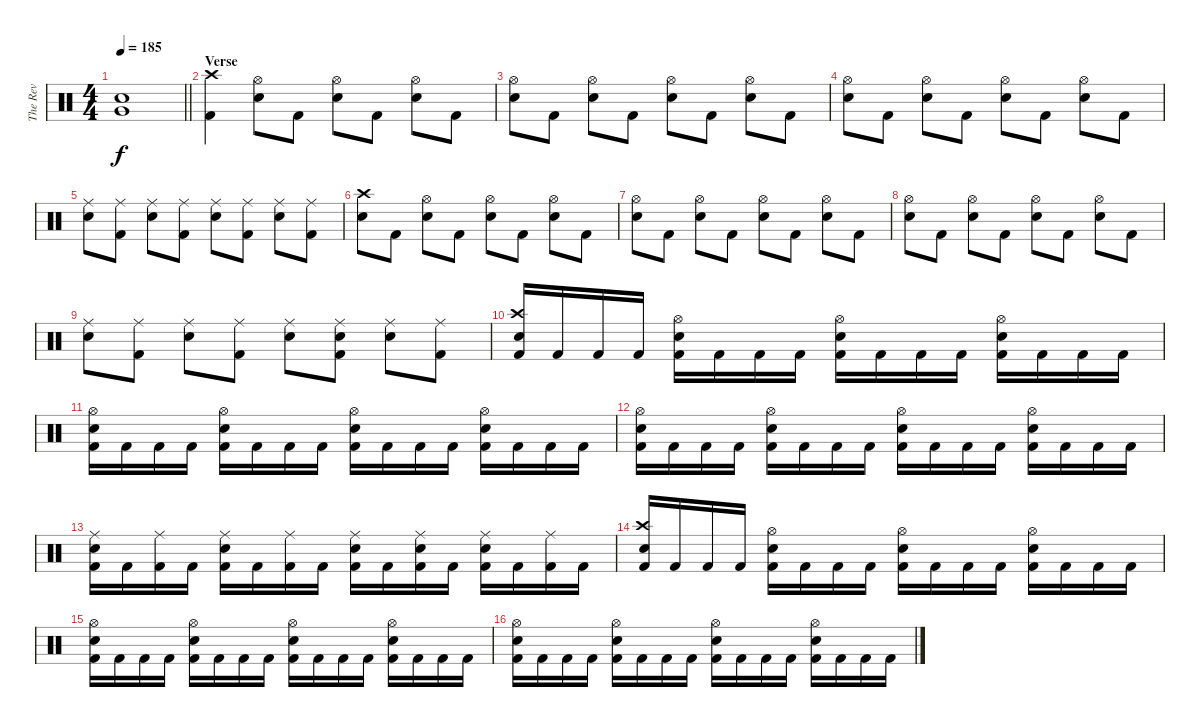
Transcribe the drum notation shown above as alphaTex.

\track ("The Rev" "The Rev") {instrument percussion}
\staff {score}
\articulation defaults
\ts (4 4)
\tempo 185
\clef neutral
\barLineRight lightlight
\ks c
("Very Low Tom (hit)" "Electric Snare (hit)").1{dy f} |
\section ("" "Verse")
("Crash high (hit)" "Kick (hit) 2").4 ("Hi-Hat (open)" "Electric Snare (hit)").8 "Kick (hit) 2".8 ("Hi-Hat (open)" "Electric Snare (hit)").8 "Kick (hit) 2".8 ("Hi-Hat (open)" "Electric Snare (hit)").8 "Kick (hit) 2".8 |
("Hi-Hat (open)" "Electric Snare (hit)").8 "Kick (hit) 2".8 ("Hi-Hat (open)" "Electric Snare (hit)").8 "Kick (hit) 2".8 ("Hi-Hat (open)" "Electric Snare (hit)").8 "Kick (hit) 2".8 ("Hi-Hat (open)" "Electric Snare (hit)").8 "Kick (hit) 2".8 |
("Hi-Hat (open)" "Electric Snare (hit)").8 "Kick (hit) 2".8 ("Hi-Hat (open)" "Electric Snare (hit)").8 "Kick (hit) 2".8 ("Hi-Hat (open)" "Electric Snare (hit)").8 "Kick (hit) 2".8 ("Hi-Hat (open)" "Electric Snare (hit)").8 "Kick (hit) 2".8 |
("Ride (middle)" "Electric Snare (hit)").8 ("Ride (middle)" "Kick (hit) 2").8 ("Ride (middle)" "Electric Snare (hit)").8 ("Ride (middle)" "Kick (hit) 2").8 ("Ride (middle)" "Electric Snare (hit)").8 ("Ride (middle)" "Kick (hit) 2").8 ("Ride (middle)" "Electric Snare (hit)").8 ("Ride (middle)" "Kick (hit) 2").8 |
("Crash high (hit)" "Electric Snare (hit)").8 "Kick (hit) 2".8 ("Hi-Hat (open)" "Electric Snare (hit)").8 "Kick (hit) 2".8 ("Hi-Hat (open)" "Electric Snare (hit)").8 "Kick (hit) 2".8 ("Hi-Hat (open)" "Electric Snare (hit)").8 "Kick (hit) 2".8 |
("Hi-Hat (open)" "Electric Snare (hit)").8 "Kick (hit) 2".8 ("Hi-Hat (open)" "Electric Snare (hit)").8 "Kick (hit) 2".8 ("Hi-Hat (open)" "Electric Snare (hit)").8 "Kick (hit) 2".8 ("Hi-Hat (open)" "Electric Snare (hit)").8 "Kick (hit) 2".8 |
("Hi-Hat (open)" "Electric Snare (hit)").8 "Kick (hit) 2".8 ("Hi-Hat (open)" "Electric Snare (hit)").8 "Kick (hit) 2".8 ("Hi-Hat (open)" "Electric Snare (hit)").8 "Kick (hit) 2".8 ("Hi-Hat (open)" "Electric Snare (hit)").8 "Kick (hit) 2".8 |
("Ride (middle)" "Electric Snare (hit)").8 ("Ride (middle)" "Kick (hit) 2").8 ("Ride (middle)" "Electric Snare (hit)").8 ("Ride (middle)" "Kick (hit) 2").8 ("Ride (middle)" "Electric Snare (hit)").8 ("Ride (middle)" "Electric Snare (hit)" "Kick (hit) 2").8 ("Ride (middle)" "Electric Snare (hit)").8 ("Ride (middle)" "Kick (hit) 2").8 |
("Crash high (hit)" "Electric Snare (hit)" "Kick (hit) 2").16 "Kick (hit) 2".16 "Kick (hit) 2".16 "Kick (hit) 2".16 ("Hi-Hat (open)" "Electric Snare (hit)" "Kick (hit) 2").16 "Kick (hit) 2".16 "Kick (hit) 2".16 "Kick (hit) 2".16 ("Hi-Hat (open)" "Electric Snare (hit)" "Kick (hit) 2").16 "Kick (hit) 2".16 "Kick (hit) 2".16 "Kick (hit) 2".16 ("Hi-Hat (open)" "Electric Snare (hit)" "Kick (hit) 2").16 "Kick (hit) 2".16 "Kick (hit) 2".16 "Kick (hit) 2".16 |
("Hi-Hat (open)" "Electric Snare (hit)" "Kick (hit) 2").16 "Kick (hit) 2".16 "Kick (hit) 2".16 "Kick (hit) 2".16 ("Hi-Hat (open)" "Electric Snare (hit)" "Kick (hit) 2").16 "Kick (hit) 2".16 "Kick (hit) 2".16 "Kick (hit) 2".16 ("Hi-Hat (open)" "Electric Snare (hit)" "Kick (hit) 2").16 "Kick (hit) 2".16 "Kick (hit) 2".16 "Kick (hit) 2".16 ("Hi-Hat (open)" "Electric Snare (hit)" "Kick (hit) 2").16 "Kick (hit) 2".16 "Kick (hit) 2".16 "Kick (hit) 2".16 |
("Hi-Hat (open)" "Electric Snare (hit)" "Kick (hit) 2").16 "Kick (hit) 2".16 "Kick (hit) 2".16 "Kick (hit) 2".16 ("Hi-Hat (open)" "Electric Snare (hit)" "Kick (hit) 2").16 "Kick (hit) 2".16 "Kick (hit) 2".16 "Kick (hit) 2".16 ("Hi-Hat (open)" "Electric Snare (hit)" "Kick (hit) 2").16 "Kick (hit) 2".16 "Kick (hit) 2".16 "Kick (hit) 2".16 ("Hi-Hat (open)" "Electric Snare (hit)" "Kick (hit) 2").16 "Kick (hit) 2".16 "Kick (hit) 2".16 "Kick (hit) 2".16 |
("Ride (middle)" "Electric Snare (hit)" "Kick (hit) 2").16 "Kick (hit) 2".16 ("Ride (middle)" "Kick (hit) 2").16 "Kick (hit) 2".16 ("Ride (middle)" "Electric Snare (hit)" "Kick (hit) 2").16 "Kick (hit) 2".16 ("Ride (middle)" "Kick (hit) 2").16 "Kick (hit) 2".16 ("Ride (middle)" "Electric Snare (hit)" "Kick (hit) 2").16 "Kick (hit) 2".16 ("Ride (middle)" "Electric Snare (hit)" "Kick (hit) 2").16 "Kick (hit) 2".16 ("Ride (middle)" "Electric Snare (hit)" "Kick (hit) 2").16 "Kick (hit) 2".16 ("Ride (middle)" "Kick (hit) 2").16 "Kick (hit) 2".16 |
("Crash high (hit)" "Electric Snare (hit)" "Kick (hit) 2").16 "Kick (hit) 2".16 "Kick (hit) 2".16 "Kick (hit) 2".16 ("Hi-Hat (open)" "Electric Snare (hit)" "Kick (hit) 2").16 "Kick (hit) 2".16 "Kick (hit) 2".16 "Kick (hit) 2".16 ("Hi-Hat (open)" "Electric Snare (hit)" "Kick (hit) 2").16 "Kick (hit) 2".16 "Kick (hit) 2".16 "Kick (hit) 2".16 ("Hi-Hat (open)" "Electric Snare (hit)" "Kick (hit) 2").16 "Kick (hit) 2".16 "Kick (hit) 2".16 "Kick (hit) 2".16 |
("Hi-Hat (open)" "Electric Snare (hit)" "Kick (hit) 2").16 "Kick (hit) 2".16 "Kick (hit) 2".16 "Kick (hit) 2".16 ("Hi-Hat (open)" "Electric Snare (hit)" "Kick (hit) 2").16 "Kick (hit) 2".16 "Kick (hit) 2".16 "Kick (hit) 2".16 ("Hi-Hat (open)" "Electric Snare (hit)" "Kick (hit) 2").16 "Kick (hit) 2".16 "Kick (hit) 2".16 "Kick (hit) 2".16 ("Hi-Hat (open)" "Electric Snare (hit)" "Kick (hit) 2").16 "Kick (hit) 2".16 "Kick (hit) 2".16 "Kick (hit) 2".16 |
("Hi-Hat (open)" "Electric Snare (hit)" "Kick (hit) 2").16 "Kick (hit) 2".16 "Kick (hit) 2".16 "Kick (hit) 2".16 ("Hi-Hat (open)" "Electric Snare (hit)" "Kick (hit) 2").16 "Kick (hit) 2".16 "Kick (hit) 2".16 "Kick (hit) 2".16 ("Hi-Hat (open)" "Electric Snare (hit)" "Kick (hit) 2").16 "Kick (hit) 2".16 "Kick (hit) 2".16 "Kick (hit) 2".16 ("Hi-Hat (open)" "Electric Snare (hit)" "Kick (hit) 2").16 "Kick (hit) 2".16 "Kick (hit) 2".16 "Kick (hit) 2".16
